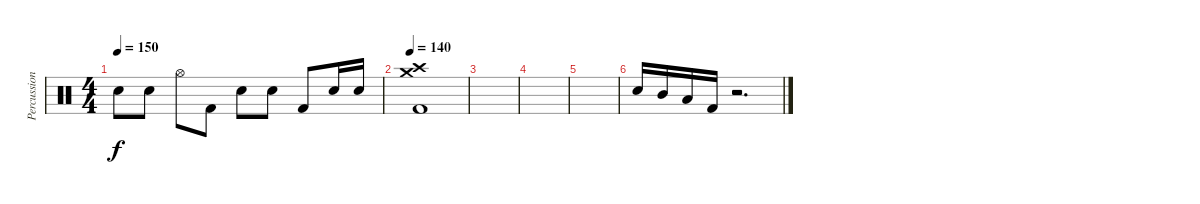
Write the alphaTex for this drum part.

\track ("Percussion" "Percussion") {instrument percussion}
\staff {score}
\articulation defaults
\ts (4 4)
\tempo 150
\clef neutral
\ks c "Electric Snare (hit)".8{dy f} "Electric Snare (hit)".8 "Hi-Hat (open)".8 "Kick (hit) 2".8 "Electric Snare (hit)".8 "Electric Snare (hit)".8 "Kick (hit) 2".8 "Electric Snare (hit)".16 "Electric Snare (hit)".16
|
\tempo 140
("Crash high (hit)" "Crash medium (hit)" "Kick (hit) 2").1 |
|
|
|
"Electric Snare (hit)".16 "Mid Tom (hit)".16 "Low Floor Tom (hit)".16 "Kick (hit) 2".16 r.2{d}
